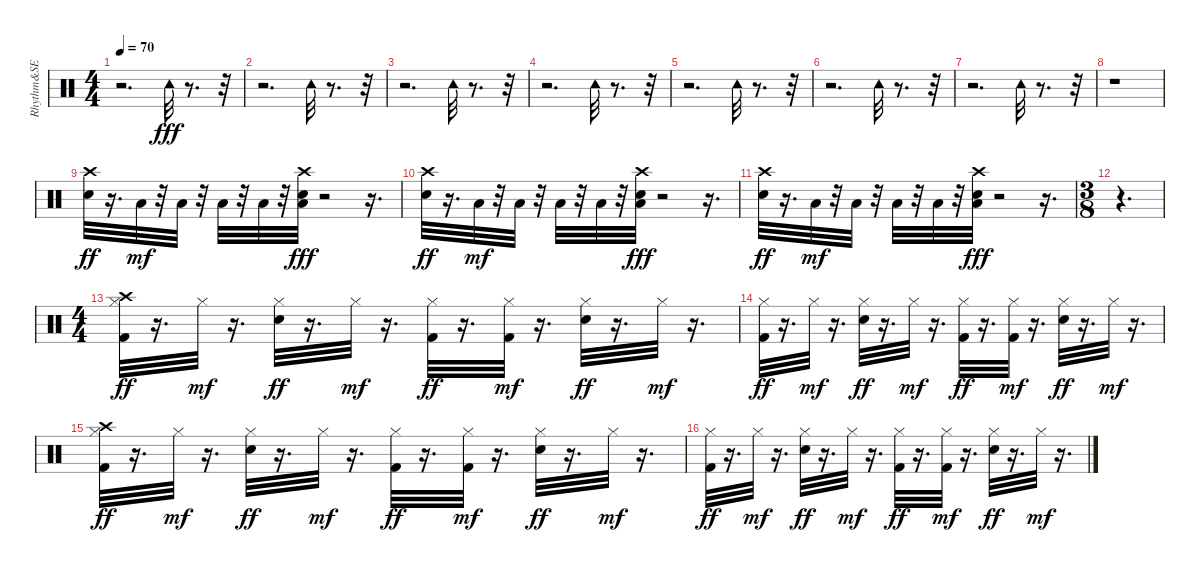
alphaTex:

\track ("Rhythm&SE" "Rhythm&SE") {instrument percussion}
\staff {score}
\articulation defaults
\ts (4 4)
\tempo 70
\clef neutral
\ks c
r.2{d dy fff} "Tambourine (hit)".32 r.8{d} r.32 |
r.2{d} "Tambourine (hit)".32 r.8{d} r.32 |
r.2{d} "Tambourine (hit)".32 r.8{d} r.32 |
r.2{d} "Tambourine (hit)".32 r.8{d} r.32 |
r.2{d} "Tambourine (hit)".32 r.8{d} r.32 |
r.2{d} "Tambourine (hit)".32 r.8{d} r.32 |
r.2{d} "Tambourine (hit)".32 r.8{d} r.32 |
r.1 |
("Snare (hit) 2" "Crash high (hit)").32{dy ff} r.16{d} "Low Floor Tom (hit)".32{dy mf} r.32 "Low Floor Tom (hit)".32 r.32 "Low Tom (hit)".32 r.32 "Low Tom (hit)".32 r.32 ("Snare (hit) 2" "Low Tom (hit)" "Crash high (hit)").32{dy fff} r.2 r.16{d} |
("Snare (hit) 2" "Crash high (hit)").32{dy ff} r.16{d} "Low Floor Tom (hit)".32{dy mf} r.32 "Low Floor Tom (hit)".32 r.32 "Low Tom (hit)".32 r.32 "Low Tom (hit)".32 r.32 ("Snare (hit) 2" "Low Tom (hit)" "Crash high (hit)").32{dy fff} r.2 r.16{d} |
("Snare (hit) 2" "Crash high (hit)").32{dy ff} r.16{d} "Low Floor Tom (hit)".32{dy mf} r.32 "Low Floor Tom (hit)".32 r.32 "Low Tom (hit)".32 r.32 "Low Tom (hit)".32 r.32 ("Snare (hit) 2" "Low Tom (hit)" "Crash high (hit)").32{dy fff} r.2 r.16{d} |
\ts (3 8)
r.4{d} |
\ts (4 4)
("Kick (hit) 2" "Hi-Hat (closed)" "Crash high (hit)").32{dy ff volume 14} r.16{d} "Hi-Hat (closed)".32{dy mf volume 14} r.16{d} ("Snare (hit) 2" "Hi-Hat (closed)").32{dy ff} r.16{d} "Hi-Hat (closed)".32{dy mf} r.16{d} ("Kick (hit) 2" "Hi-Hat (closed)").32{dy ff} r.16{d} ("Kick (hit) 2" "Hi-Hat (closed)").32{dy mf} r.16{d} ("Snare (hit) 2" "Hi-Hat (closed)").32{dy ff} r.16{d} "Hi-Hat (closed)".32{dy mf} r.16{d} |
("Kick (hit) 2" "Hi-Hat (closed)").32{dy ff} r.16{d} "Hi-Hat (closed)".32{dy mf} r.16{d} ("Snare (hit) 2" "Hi-Hat (closed)").32{dy ff} r.16{d} "Hi-Hat (closed)".32{dy mf} r.16{d} ("Kick (hit) 2" "Hi-Hat (closed)").32{dy ff} r.16{d} ("Kick (hit) 2" "Hi-Hat (closed)").32{dy mf} r.16{d} ("Snare (hit) 2" "Hi-Hat (closed)").32{dy ff} r.16{d} "Hi-Hat (closed)".32{dy mf} r.16{d} |
("Kick (hit) 2" "Hi-Hat (closed)" "Crash high (hit)").32{dy ff} r.16{d} "Hi-Hat (closed)".32{dy mf} r.16{d} ("Snare (hit) 2" "Hi-Hat (closed)").32{dy ff} r.16{d} "Hi-Hat (closed)".32{dy mf} r.16{d} ("Kick (hit) 2" "Hi-Hat (closed)").32{dy ff} r.16{d} ("Kick (hit) 2" "Hi-Hat (closed)").32{dy mf} r.16{d} ("Snare (hit) 2" "Hi-Hat (closed)").32{dy ff} r.16{d} "Hi-Hat (closed)".32{dy mf} r.16{d} |
("Kick (hit) 2" "Hi-Hat (closed)").32{dy ff} r.16{d} "Hi-Hat (closed)".32{dy mf} r.16{d} ("Snare (hit) 2" "Hi-Hat (closed)").32{dy ff} r.16{d} "Hi-Hat (closed)".32{dy mf} r.16{d} ("Kick (hit) 2" "Hi-Hat (closed)").32{dy ff} r.16{d} ("Kick (hit) 2" "Hi-Hat (closed)").32{dy mf} r.16{d} ("Snare (hit) 2" "Hi-Hat (closed)").32{dy ff} r.16{d} "Hi-Hat (closed)".32{dy mf} r.16{d}
